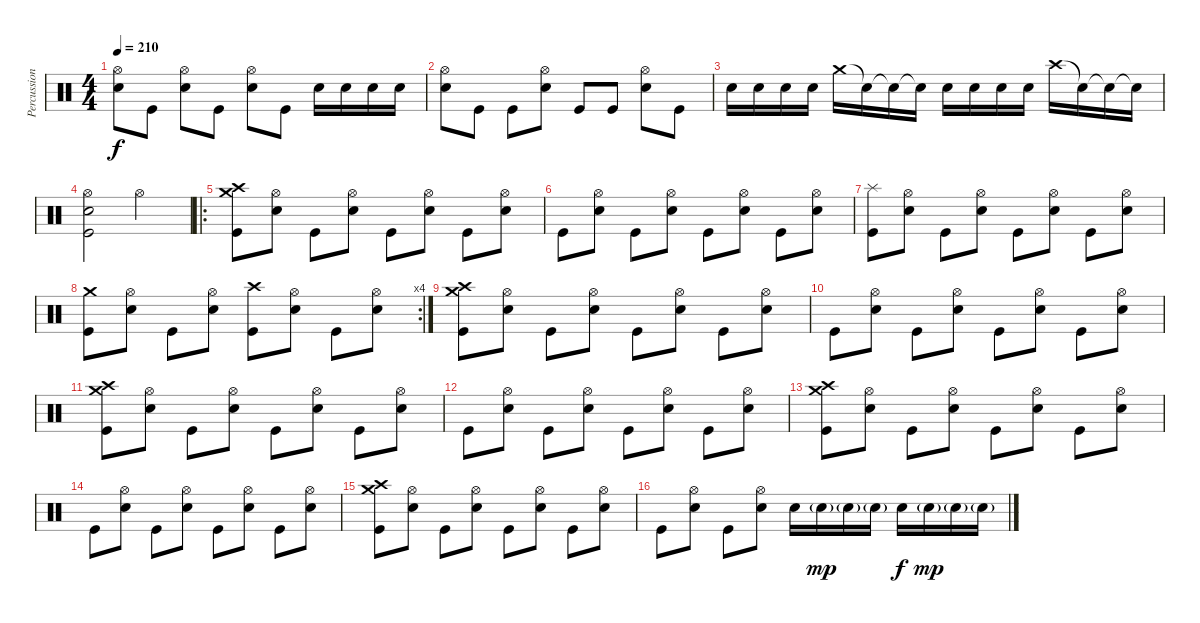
\track ("Percussion" "Percussion") {instrument percussion}
\staff {score}
\articulation defaults
\ts (4 4)
\tempo 210
\clef neutral
\ks c
("Hi-Hat (open)" "Electric Snare (hit)").8{dy f} "Kick (hit)".8 ("Hi-Hat (open)" "Electric Snare (hit)").8 "Kick (hit)".8 ("Hi-Hat (open)" "Electric Snare (hit)").8 "Kick (hit)".8 "Electric Snare (hit)".16 "Electric Snare (hit)".16 "Electric Snare (hit)".16 "Electric Snare (hit)".16 |
("Hi-Hat (open)" "Electric Snare (hit)").8 "Kick (hit)".8 "Kick (hit)".8 ("Hi-Hat (open)" "Electric Snare (hit)").8 "Kick (hit)".8 "Kick (hit)".8 ("Hi-Hat (open)" "Electric Snare (hit)").8 "Kick (hit)".8 |
"Electric Snare (hit)".16 "Electric Snare (hit)".16 "Electric Snare (hit)".16 "Electric Snare (hit)".16 "Crash medium (hit)".16 "Snare (hit)"{t}.16 "Snare (hit)"{t}.16 "Snare (hit)"{t}.16 "Electric Snare (hit)".16 "Electric Snare (hit)".16 "Electric Snare (hit)".16 "Electric Snare (hit)".16 "Crash high (hit)".16 "Snare (hit)"{t}.16 "Snare (hit)"{t}.16 "Snare (hit)"{t}.16 |
("Hi-Hat (open)" "Electric Snare (hit)" "Kick (hit)").2 "Hi-Hat (open)".2 |
\ro
("Crash medium (hit)" "Crash high (hit)" "Kick (hit)").8 ("Hi-Hat (open)" "Electric Snare (hit)").8 "Kick (hit)".8 ("Hi-Hat (open)" "Electric Snare (hit)").8 "Kick (hit)".8 ("Hi-Hat (open)" "Electric Snare (hit)").8 "Kick (hit)".8 ("Hi-Hat (open)" "Electric Snare (hit)").8 |
"Kick (hit)".8 ("Hi-Hat (open)" "Electric Snare (hit)").8 "Kick (hit)".8 ("Hi-Hat (open)" "Electric Snare (hit)").8 "Kick (hit)".8 ("Hi-Hat (open)" "Electric Snare (hit)").8 "Kick (hit)".8 ("Hi-Hat (open)" "Electric Snare (hit)").8 |
("Splash (hit)" "Kick (hit)").8 ("Hi-Hat (open)" "Electric Snare (hit)").8 "Kick (hit)".8 ("Hi-Hat (open)" "Electric Snare (hit)").8 "Kick (hit)".8 ("Hi-Hat (open)" "Electric Snare (hit)").8 "Kick (hit)".8 ("Hi-Hat (open)" "Electric Snare (hit)").8 |
\rc 4
("Crash medium (hit)" "Kick (hit)").8 ("Hi-Hat (open)" "Electric Snare (hit)").8 "Kick (hit)".8 ("Hi-Hat (open)" "Electric Snare (hit)").8 ("Crash high (hit)" "Kick (hit)").8 ("Hi-Hat (open)" "Electric Snare (hit)").8 "Kick (hit)".8 ("Hi-Hat (open)" "Electric Snare (hit)").8 |
("Crash medium (hit)" "Crash high (hit)" "Kick (hit)").8 ("Hi-Hat (open)" "Electric Snare (hit)").8 "Kick (hit)".8 ("Hi-Hat (open)" "Electric Snare (hit)").8 "Kick (hit)".8 ("Hi-Hat (open)" "Electric Snare (hit)").8 "Kick (hit)".8 ("Hi-Hat (open)" "Electric Snare (hit)").8 |
"Kick (hit)".8 ("Hi-Hat (open)" "Electric Snare (hit)").8 "Kick (hit)".8 ("Hi-Hat (open)" "Electric Snare (hit)").8 "Kick (hit)".8 ("Hi-Hat (open)" "Electric Snare (hit)").8 "Kick (hit)".8 ("Hi-Hat (open)" "Electric Snare (hit)").8 |
("Crash medium (hit)" "Crash high (hit)" "Kick (hit)").8 ("Hi-Hat (open)" "Electric Snare (hit)").8 "Kick (hit)".8 ("Hi-Hat (open)" "Electric Snare (hit)").8 "Kick (hit)".8 ("Hi-Hat (open)" "Electric Snare (hit)").8 "Kick (hit)".8 ("Hi-Hat (open)" "Electric Snare (hit)").8 |
"Kick (hit)".8 ("Hi-Hat (open)" "Electric Snare (hit)").8 "Kick (hit)".8 ("Hi-Hat (open)" "Electric Snare (hit)").8 "Kick (hit)".8 ("Hi-Hat (open)" "Electric Snare (hit)").8 "Kick (hit)".8 ("Hi-Hat (open)" "Electric Snare (hit)").8 |
("Crash medium (hit)" "Crash high (hit)" "Kick (hit)").8 ("Hi-Hat (open)" "Electric Snare (hit)").8 "Kick (hit)".8 ("Hi-Hat (open)" "Electric Snare (hit)").8 "Kick (hit)".8 ("Hi-Hat (open)" "Electric Snare (hit)").8 "Kick (hit)".8 ("Hi-Hat (open)" "Electric Snare (hit)").8 |
"Kick (hit)".8 ("Hi-Hat (open)" "Electric Snare (hit)").8 "Kick (hit)".8 ("Hi-Hat (open)" "Electric Snare (hit)").8 "Kick (hit)".8 ("Hi-Hat (open)" "Electric Snare (hit)").8 "Kick (hit)".8 ("Hi-Hat (open)" "Electric Snare (hit)").8 |
("Crash medium (hit)" "Crash high (hit)" "Kick (hit)").8 ("Hi-Hat (open)" "Electric Snare (hit)").8 "Kick (hit)".8 ("Hi-Hat (open)" "Electric Snare (hit)").8 "Kick (hit)".8 ("Hi-Hat (open)" "Electric Snare (hit)").8 "Kick (hit)".8 ("Hi-Hat (open)" "Electric Snare (hit)").8 |
"Kick (hit)".8 ("Hi-Hat (open)" "Electric Snare (hit)").8 "Kick (hit)".8 ("Hi-Hat (open)" "Electric Snare (hit)").8 "Electric Snare (hit)".16 "Electric Snare (hit)"{g}.16{dy mp} "Electric Snare (hit)"{g}.16 "Electric Snare (hit)"{g}.16 "Electric Snare (hit)".16{dy f} "Electric Snare (hit)"{g}.16{dy mp} "Electric Snare (hit)"{g}.16 "Electric Snare (hit)"{g}.16
